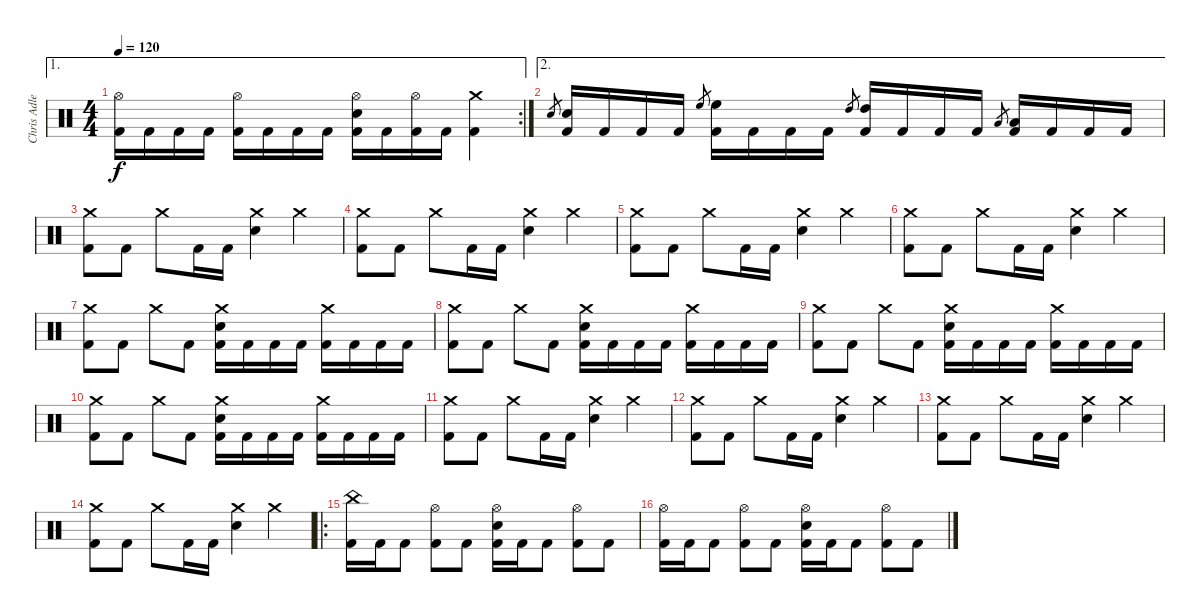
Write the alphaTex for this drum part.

\track ("Chris Adler" "Chris Adle") {instrument percussion}
\staff {score}
\articulation defaults
\ae 1
\rc 2
\ts (4 4)
\tempo 120
\clef neutral
\ks c
("Hi-Hat (open)" "Kick (hit) 2").16{dy f} "Kick (hit) 2".16 "Kick (hit) 2".16 "Kick (hit) 2".16 ("Hi-Hat (open)" "Kick (hit) 2").16 "Kick (hit) 2".16 "Kick (hit) 2".16 "Kick (hit) 2".16 ("Hi-Hat (open)" "Snare (hit) 2" "Kick (hit) 2").16 "Kick (hit) 2".16 ("Hi-Hat (open)" "Kick (hit) 2").16 "Kick (hit) 2".16 ("Crash medium (hit)" "Kick (hit) 2").4 |
\ae 2 "Snare (hit) 2".8{gr}
("Snare (hit) 2" "Kick (hit) 2").16 "Kick (hit) 2".16 "Kick (hit) 2".16 "Kick (hit) 2".16 "High Floor Tom (hit)".8{gr} ("High Floor Tom (hit)" "Kick (hit) 2").16 "Kick (hit) 2".16 "Kick (hit) 2".16 "Kick (hit) 2".16 "High Tom (hit)".8{gr} ("High Tom (hit)" "Kick (hit) 2").16 "Kick (hit) 2".16 "Kick (hit) 2".16 "Kick (hit) 2".16 "Low Floor Tom (hit)".8{gr} ("Low Floor Tom (hit)" "Kick (hit) 2").16 "Kick (hit) 2".16 "Kick (hit) 2".16 "Kick (hit) 2".16 |
("Crash medium (hit)" "Kick (hit) 2").8 "Kick (hit) 2".8 "Crash medium (hit)".8 "Kick (hit) 2".16 "Kick (hit) 2".16 ("Crash medium (hit)" "Snare (hit) 2").4 "Crash medium (hit)".4 |
("Crash medium (hit)" "Kick (hit) 2").8 "Kick (hit) 2".8 "Crash medium (hit)".8 "Kick (hit) 2".16 "Kick (hit) 2".16 ("Crash medium (hit)" "Snare (hit) 2").4 "Crash medium (hit)".4 |
("Crash medium (hit)" "Kick (hit) 2").8 "Kick (hit) 2".8 "Crash medium (hit)".8 "Kick (hit) 2".16 "Kick (hit) 2".16 ("Crash medium (hit)" "Snare (hit) 2").4 "Crash medium (hit)".4 |
("Crash medium (hit)" "Kick (hit) 2").8 "Kick (hit) 2".8 "Crash medium (hit)".8 "Kick (hit) 2".16 "Kick (hit) 2".16 ("Crash medium (hit)" "Snare (hit) 2").4 "Crash medium (hit)".4 |
("Crash medium (hit)" "Kick (hit) 2").8 "Kick (hit) 2".8 "Crash medium (hit)".8 "Kick (hit) 2".8 ("Crash medium (hit)" "Snare (hit) 2" "Kick (hit) 2").16 "Kick (hit) 2".16 "Kick (hit) 2".16 "Kick (hit) 2".16 ("Crash medium (hit)" "Kick (hit) 2").16 "Kick (hit) 2".16 "Kick (hit) 2".16 "Kick (hit) 2".16 |
("Crash medium (hit)" "Kick (hit) 2").8 "Kick (hit) 2".8 "Crash medium (hit)".8 "Kick (hit) 2".8 ("Crash medium (hit)" "Snare (hit) 2" "Kick (hit) 2").16 "Kick (hit) 2".16 "Kick (hit) 2".16 "Kick (hit) 2".16 ("Crash medium (hit)" "Kick (hit) 2").16 "Kick (hit) 2".16 "Kick (hit) 2".16 "Kick (hit) 2".16 |
("Crash medium (hit)" "Kick (hit) 2").8 "Kick (hit) 2".8 "Crash medium (hit)".8 "Kick (hit) 2".8 ("Crash medium (hit)" "Snare (hit) 2" "Kick (hit) 2").16 "Kick (hit) 2".16 "Kick (hit) 2".16 "Kick (hit) 2".16 ("Crash medium (hit)" "Kick (hit) 2").16 "Kick (hit) 2".16 "Kick (hit) 2".16 "Kick (hit) 2".16 |
("Crash medium (hit)" "Kick (hit) 2").8 "Kick (hit) 2".8 "Crash medium (hit)".8 "Kick (hit) 2".8 ("Crash medium (hit)" "Snare (hit) 2" "Kick (hit) 2").16 "Kick (hit) 2".16 "Kick (hit) 2".16 "Kick (hit) 2".16 ("Crash medium (hit)" "Kick (hit) 2").16 "Kick (hit) 2".16 "Kick (hit) 2".16 "Kick (hit) 2".16 |
("Crash medium (hit)" "Kick (hit) 2").8 "Kick (hit) 2".8 "Crash medium (hit)".8 "Kick (hit) 2".16 "Kick (hit) 2".16 ("Crash medium (hit)" "Snare (hit) 2").4 "Crash medium (hit)".4 |
("Crash medium (hit)" "Kick (hit) 2").8 "Kick (hit) 2".8 "Crash medium (hit)".8 "Kick (hit) 2".16 "Kick (hit) 2".16 ("Crash medium (hit)" "Snare (hit) 2").4 "Crash medium (hit)".4 |
("Crash medium (hit)" "Kick (hit) 2").8 "Kick (hit) 2".8 "Crash medium (hit)".8 "Kick (hit) 2".16 "Kick (hit) 2".16 ("Crash medium (hit)" "Snare (hit) 2").4 "Crash medium (hit)".4 |
("Crash medium (hit)" "Kick (hit) 2").8 "Kick (hit) 2".8 "Crash medium (hit)".8 "Kick (hit) 2".16 "Kick (hit) 2".16 ("Crash medium (hit)" "Snare (hit) 2").4 "Crash medium (hit)".4 |
\ro
("China (hit)" "Kick (hit) 2").16 "Kick (hit) 2".16 "Kick (hit) 2".8 ("Hi-Hat (open)" "Kick (hit) 2").8 "Kick (hit) 2".8 ("Hi-Hat (open)" "Snare (hit) 2" "Kick (hit) 2").16 "Kick (hit) 2".16 "Kick (hit) 2".8 ("Hi-Hat (open)" "Kick (hit) 2").8 "Kick (hit) 2".8 |
("Hi-Hat (open)" "Kick (hit) 2").16 "Kick (hit) 2".16 "Kick (hit) 2".8 ("Hi-Hat (open)" "Kick (hit) 2").8 "Kick (hit) 2".8 ("Hi-Hat (open)" "Snare (hit) 2" "Kick (hit) 2").16 "Kick (hit) 2".16 "Kick (hit) 2".8 ("Hi-Hat (open)" "Kick (hit) 2").8 "Kick (hit) 2".8
